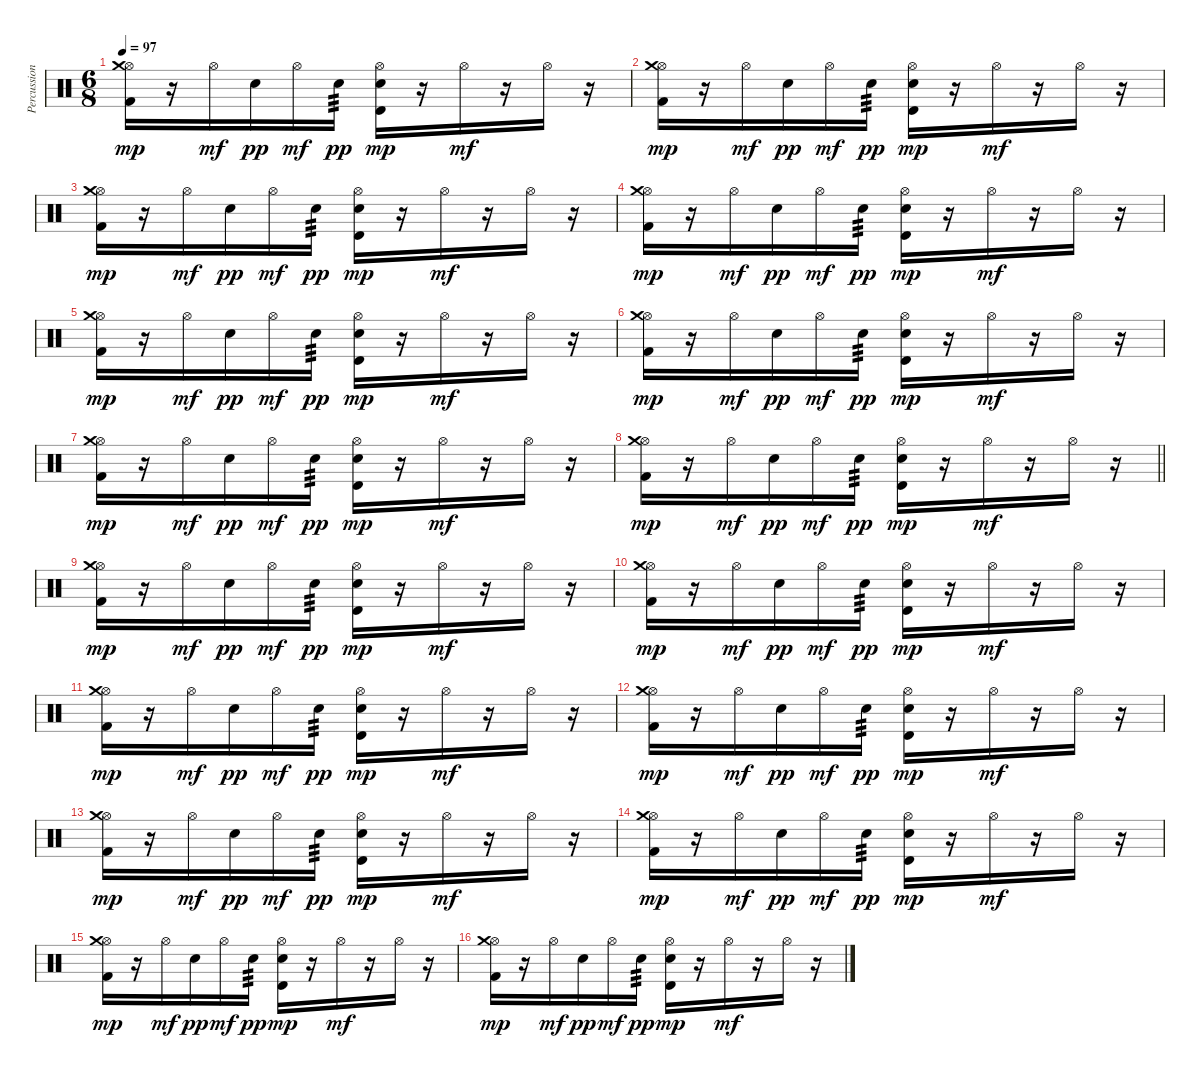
\track ("Percussion" "Percussion") {instrument percussion}
\staff {score}
\articulation defaults
\ts (6 8)
\tempo 97
\clef neutral
\ks c
("Hi-Hat (open)" "Crash medium (hit)" "Kick (hit) 2").16{dy mp} r.16 "Hi-Hat (open)".16{dy mf} "Electric Snare (hit)".16{dy pp} "Hi-Hat (open)".16{dy mf} "Electric Snare (hit)".16{tp 3 dy pp} ("Hi-Hat (open)" "Timbale high (hit)" "Electric Snare (hit)").16{dy mp} r.16 "Hi-Hat (open)".16{dy mf} r.16 "Hi-Hat (open)".16 r.16 |
("Hi-Hat (open)" "Crash medium (hit)" "Kick (hit) 2").16{dy mp} r.16 "Hi-Hat (open)".16{dy mf} "Electric Snare (hit)".16{dy pp} "Hi-Hat (open)".16{dy mf} "Electric Snare (hit)".16{tp 3 dy pp} ("Hi-Hat (open)" "Timbale high (hit)" "Electric Snare (hit)").16{dy mp} r.16 "Hi-Hat (open)".16{dy mf} r.16 "Hi-Hat (open)".16 r.16 |
("Hi-Hat (open)" "Crash medium (hit)" "Kick (hit) 2").16{dy mp} r.16 "Hi-Hat (open)".16{dy mf} "Electric Snare (hit)".16{dy pp} "Hi-Hat (open)".16{dy mf} "Electric Snare (hit)".16{tp 3 dy pp} ("Hi-Hat (open)" "Timbale high (hit)" "Electric Snare (hit)").16{dy mp} r.16 "Hi-Hat (open)".16{dy mf} r.16 "Hi-Hat (open)".16 r.16 |
("Hi-Hat (open)" "Crash medium (hit)" "Kick (hit) 2").16{dy mp} r.16 "Hi-Hat (open)".16{dy mf} "Electric Snare (hit)".16{dy pp} "Hi-Hat (open)".16{dy mf} "Electric Snare (hit)".16{tp 3 dy pp} ("Hi-Hat (open)" "Timbale high (hit)" "Electric Snare (hit)").16{dy mp} r.16 "Hi-Hat (open)".16{dy mf} r.16 "Hi-Hat (open)".16 r.16 |
("Hi-Hat (open)" "Crash medium (hit)" "Kick (hit) 2").16{dy mp} r.16 "Hi-Hat (open)".16{dy mf} "Electric Snare (hit)".16{dy pp} "Hi-Hat (open)".16{dy mf} "Electric Snare (hit)".16{tp 3 dy pp} ("Hi-Hat (open)" "Timbale high (hit)" "Electric Snare (hit)").16{dy mp} r.16 "Hi-Hat (open)".16{dy mf} r.16 "Hi-Hat (open)".16 r.16 |
("Hi-Hat (open)" "Crash medium (hit)" "Kick (hit) 2").16{dy mp} r.16 "Hi-Hat (open)".16{dy mf} "Electric Snare (hit)".16{dy pp} "Hi-Hat (open)".16{dy mf} "Electric Snare (hit)".16{tp 3 dy pp} ("Hi-Hat (open)" "Timbale high (hit)" "Electric Snare (hit)").16{dy mp} r.16 "Hi-Hat (open)".16{dy mf} r.16 "Hi-Hat (open)".16 r.16 |
("Hi-Hat (open)" "Crash medium (hit)" "Kick (hit) 2").16{dy mp} r.16 "Hi-Hat (open)".16{dy mf} "Electric Snare (hit)".16{dy pp} "Hi-Hat (open)".16{dy mf} "Electric Snare (hit)".16{tp 3 dy pp} ("Hi-Hat (open)" "Timbale high (hit)" "Electric Snare (hit)").16{dy mp} r.16 "Hi-Hat (open)".16{dy mf} r.16 "Hi-Hat (open)".16 r.16 |
\barLineRight lightlight
("Hi-Hat (open)" "Crash medium (hit)" "Kick (hit) 2").16{dy mp} r.16 "Hi-Hat (open)".16{dy mf} "Electric Snare (hit)".16{dy pp} "Hi-Hat (open)".16{dy mf} "Electric Snare (hit)".16{tp 3 dy pp} ("Hi-Hat (open)" "Timbale high (hit)" "Electric Snare (hit)").16{dy mp} r.16 "Hi-Hat (open)".16{dy mf} r.16 "Hi-Hat (open)".16 r.16 |
("Hi-Hat (open)" "Crash medium (hit)" "Kick (hit) 2").16{dy mp} r.16 "Hi-Hat (open)".16{dy mf} "Electric Snare (hit)".16{dy pp} "Hi-Hat (open)".16{dy mf} "Electric Snare (hit)".16{tp 3 dy pp} ("Hi-Hat (open)" "Timbale high (hit)" "Electric Snare (hit)").16{dy mp} r.16 "Hi-Hat (open)".16{dy mf} r.16 "Hi-Hat (open)".16 r.16 |
("Hi-Hat (open)" "Crash medium (hit)" "Kick (hit) 2").16{dy mp} r.16 "Hi-Hat (open)".16{dy mf} "Electric Snare (hit)".16{dy pp} "Hi-Hat (open)".16{dy mf} "Electric Snare (hit)".16{tp 3 dy pp} ("Hi-Hat (open)" "Timbale high (hit)" "Electric Snare (hit)").16{dy mp} r.16 "Hi-Hat (open)".16{dy mf} r.16 "Hi-Hat (open)".16 r.16 |
("Hi-Hat (open)" "Crash medium (hit)" "Kick (hit) 2").16{dy mp} r.16 "Hi-Hat (open)".16{dy mf} "Electric Snare (hit)".16{dy pp} "Hi-Hat (open)".16{dy mf} "Electric Snare (hit)".16{tp 3 dy pp} ("Hi-Hat (open)" "Timbale high (hit)" "Electric Snare (hit)").16{dy mp} r.16 "Hi-Hat (open)".16{dy mf} r.16 "Hi-Hat (open)".16 r.16 |
("Hi-Hat (open)" "Crash medium (hit)" "Kick (hit) 2").16{dy mp} r.16 "Hi-Hat (open)".16{dy mf} "Electric Snare (hit)".16{dy pp} "Hi-Hat (open)".16{dy mf} "Electric Snare (hit)".16{tp 3 dy pp} ("Hi-Hat (open)" "Timbale high (hit)" "Electric Snare (hit)").16{dy mp} r.16 "Hi-Hat (open)".16{dy mf} r.16 "Hi-Hat (open)".16 r.16 |
("Hi-Hat (open)" "Crash medium (hit)" "Kick (hit) 2").16{dy mp} r.16 "Hi-Hat (open)".16{dy mf} "Electric Snare (hit)".16{dy pp} "Hi-Hat (open)".16{dy mf} "Electric Snare (hit)".16{tp 3 dy pp} ("Hi-Hat (open)" "Timbale high (hit)" "Electric Snare (hit)").16{dy mp} r.16 "Hi-Hat (open)".16{dy mf} r.16 "Hi-Hat (open)".16 r.16 |
("Hi-Hat (open)" "Crash medium (hit)" "Kick (hit) 2").16{dy mp} r.16 "Hi-Hat (open)".16{dy mf} "Electric Snare (hit)".16{dy pp} "Hi-Hat (open)".16{dy mf} "Electric Snare (hit)".16{tp 3 dy pp} ("Hi-Hat (open)" "Timbale high (hit)" "Electric Snare (hit)").16{dy mp} r.16 "Hi-Hat (open)".16{dy mf} r.16 "Hi-Hat (open)".16 r.16 |
("Hi-Hat (open)" "Crash medium (hit)" "Kick (hit) 2").16{dy mp} r.16 "Hi-Hat (open)".16{dy mf} "Electric Snare (hit)".16{dy pp} "Hi-Hat (open)".16{dy mf} "Electric Snare (hit)".16{tp 3 dy pp} ("Hi-Hat (open)" "Timbale high (hit)" "Electric Snare (hit)").16{dy mp} r.16 "Hi-Hat (open)".16{dy mf} r.16 "Hi-Hat (open)".16 r.16 |
("Hi-Hat (open)" "Crash medium (hit)" "Kick (hit) 2").16{dy mp} r.16 "Hi-Hat (open)".16{dy mf} "Electric Snare (hit)".16{dy pp} "Hi-Hat (open)".16{dy mf} "Electric Snare (hit)".16{tp 3 dy pp} ("Hi-Hat (open)" "Timbale high (hit)" "Electric Snare (hit)").16{dy mp} r.16 "Hi-Hat (open)".16{dy mf} r.16 "Hi-Hat (open)".16 r.16
